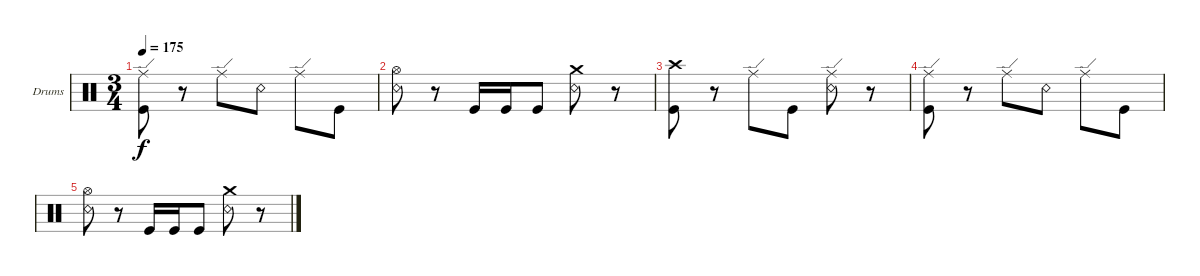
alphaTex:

\bracketExtendMode groupsimilarinstruments
\firstSystemTrackNameOrientation horizontal
\otherSystemsTrackNameOrientation horizontal
\track ("Drumkit" "Drums") {instrument percussion}
\staff {score}
\articulation defaults
\ts (3 4)
\tempo 175
\clef neutral
\ks c
("Kick (hit)" "Ride (edge)").8{dy f} r.8 "Ride (edge)".8 "Snare (rim shot)".8 "Ride (edge)".8 "Kick (hit)".8 |
("Snare (rim shot)" "Hi-Hat (open)").8 r.8 "Kick (hit)".16 "Kick (hit)".16 "Kick (hit)".8 ("Snare (rim shot)" "Crash medium (hit)").8 r.8 |
("Kick (hit)" "Crash high (hit)").8 r.8 "Ride (edge)".8 "Kick (hit)".8 ("Snare (rim shot)" "Ride (edge)").8 r.8 |
("Kick (hit)" "Ride (edge)").8 r.8 "Ride (edge)".8 "Snare (rim shot)".8 "Ride (edge)".8 "Kick (hit)".8 |
("Snare (rim shot)" "Hi-Hat (open)").8 r.8 "Kick (hit)".16 "Kick (hit)".16 "Kick (hit)".8 ("Snare (rim shot)" "Crash medium (hit)").8 r.8
